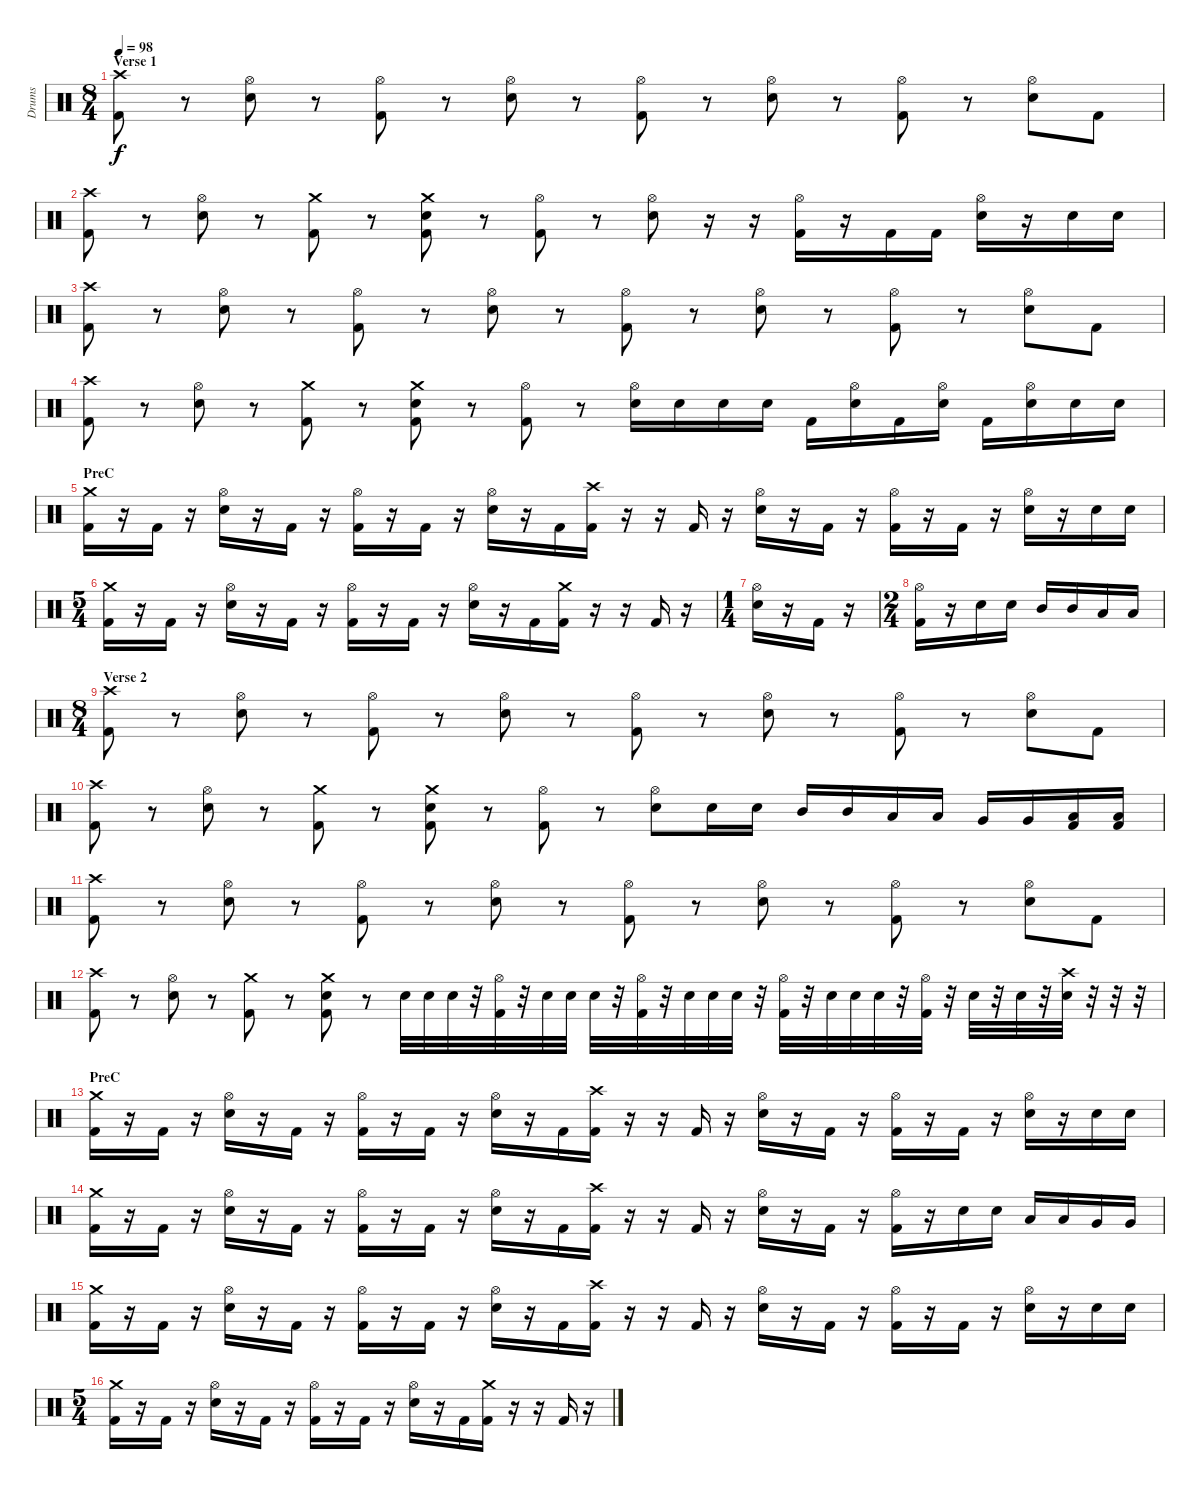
\track ("Drums" "Drums") {instrument percussion}
\staff {score}
\articulation defaults
\ts (8 4)
\section ("" "Verse 1")
\tempo 98
\clef neutral
\ks c
("Crash high (hit)" "Kick (hit) 2").8{dy f} r.8 ("Hi-Hat (open)" "Electric Snare (hit)").8 r.8 ("Hi-Hat (open)" "Kick (hit) 2").8 r.8 ("Hi-Hat (open)" "Electric Snare (hit)").8 r.8 ("Hi-Hat (open)" "Kick (hit) 2").8 r.8 ("Hi-Hat (open)" "Electric Snare (hit)").8 r.8 ("Hi-Hat (open)" "Kick (hit) 2").8 r.8 ("Hi-Hat (open)" "Electric Snare (hit)").8 "Kick (hit) 2".8 |
("Crash high (hit)" "Kick (hit) 2").8 r.8 ("Hi-Hat (open)" "Electric Snare (hit)").8 r.8 ("Crash medium (hit)" "Kick (hit) 2").8 r.8 ("Crash medium (hit)" "Electric Snare (hit)" "Kick (hit) 2").8 r.8 ("Hi-Hat (open)" "Kick (hit) 2").8 r.8 ("Hi-Hat (open)" "Electric Snare (hit)").8 r.16 r.16 ("Hi-Hat (open)" "Kick (hit) 2").16 r.16 "Kick (hit) 2".16 "Kick (hit) 2".16 ("Hi-Hat (open)" "Electric Snare (hit)").16 r.16 "Electric Snare (hit)".16 "Electric Snare (hit)".16 |
("Crash high (hit)" "Kick (hit) 2").8 r.8 ("Hi-Hat (open)" "Electric Snare (hit)").8 r.8 ("Hi-Hat (open)" "Kick (hit) 2").8 r.8 ("Hi-Hat (open)" "Electric Snare (hit)").8 r.8 ("Hi-Hat (open)" "Kick (hit) 2").8 r.8 ("Hi-Hat (open)" "Electric Snare (hit)").8 r.8 ("Hi-Hat (open)" "Kick (hit) 2").8 r.8 ("Hi-Hat (open)" "Electric Snare (hit)").8 "Kick (hit) 2".8 |
("Crash high (hit)" "Kick (hit) 2").8 r.8 ("Hi-Hat (open)" "Electric Snare (hit)").8 r.8 ("Crash medium (hit)" "Kick (hit) 2").8 r.8 ("Crash medium (hit)" "Electric Snare (hit)" "Kick (hit) 2").8 r.8 ("Hi-Hat (open)" "Kick (hit) 2").8 r.8 ("Hi-Hat (open)" "Electric Snare (hit)").16 "Electric Snare (hit)".16 "Electric Snare (hit)".16 "Electric Snare (hit)".16 "Kick (hit) 2".16 ("Hi-Hat (open)" "Electric Snare (hit)").16 "Kick (hit) 2".16 ("Hi-Hat (open)" "Electric Snare (hit)").16 "Kick (hit) 2".16 ("Hi-Hat (open)" "Electric Snare (hit)").16 "Electric Snare (hit)".16 "Electric Snare (hit)".16 |
\section ("" "PreC")
("Crash medium (hit)" "Kick (hit) 2").16 r.16 "Kick (hit) 2".16 r.16 ("Hi-Hat (open)" "Electric Snare (hit)").16 r.16 "Kick (hit) 2".16 r.16 ("Hi-Hat (open)" "Kick (hit) 2").16 r.16 "Kick (hit) 2".16 r.16 ("Hi-Hat (open)" "Electric Snare (hit)").16 r.16 "Kick (hit) 2".16 ("Crash high (hit)" "Kick (hit) 2").16 r.16 r.16 "Kick (hit) 2".16 r.16 ("Hi-Hat (open)" "Electric Snare (hit)").16 r.16 "Kick (hit) 2".16 r.16 ("Hi-Hat (open)" "Kick (hit) 2").16 r.16 "Kick (hit) 2".16 r.16 ("Hi-Hat (open)" "Electric Snare (hit)").16 r.16 "Electric Snare (hit)".16 "Electric Snare (hit)".16 |
\ts (5 4)
("Crash medium (hit)" "Kick (hit) 2").16 r.16 "Kick (hit) 2".16 r.16 ("Hi-Hat (open)" "Electric Snare (hit)").16 r.16 "Kick (hit) 2".16 r.16 ("Hi-Hat (open)" "Kick (hit) 2").16 r.16 "Kick (hit) 2".16 r.16 ("Hi-Hat (open)" "Electric Snare (hit)").16 r.16 "Kick (hit) 2".16 ("Crash medium (hit)" "Kick (hit) 2").16 r.16 r.16 "Kick (hit) 2".16 r.16 |
\ts (1 4)
("Hi-Hat (open)" "Electric Snare (hit)").16 r.16 "Kick (hit) 2".16 r.16 |
\ts (2 4)
("Hi-Hat (open)" "Kick (hit) 2").16 r.16 "Electric Snare (hit)".16 "Electric Snare (hit)".16 "Mid Tom (hit)".16 "Mid Tom (hit)".16 "Low Tom (hit)".16 "Low Tom (hit)".16 |
\ts (8 4)
\section ("" "Verse 2")
("Crash high (hit)" "Kick (hit) 2").8 r.8 ("Hi-Hat (open)" "Electric Snare (hit)").8 r.8 ("Hi-Hat (open)" "Kick (hit) 2").8 r.8 ("Hi-Hat (open)" "Electric Snare (hit)").8 r.8 ("Hi-Hat (open)" "Kick (hit) 2").8 r.8 ("Hi-Hat (open)" "Electric Snare (hit)").8 r.8 ("Hi-Hat (open)" "Kick (hit) 2").8 r.8 ("Hi-Hat (open)" "Electric Snare (hit)").8 "Kick (hit) 2".8 |
("Crash high (hit)" "Kick (hit) 2").8 r.8 ("Hi-Hat (open)" "Electric Snare (hit)").8 r.8 ("Crash medium (hit)" "Kick (hit) 2").8 r.8 ("Crash medium (hit)" "Electric Snare (hit)" "Kick (hit) 2").8 r.8 ("Hi-Hat (open)" "Kick (hit) 2").8 r.8 ("Hi-Hat (open)" "Electric Snare (hit)").8 "Electric Snare (hit)".16 "Electric Snare (hit)".16 "Mid Tom (hit)".16 "Mid Tom (hit)".16 "Low Tom (hit)".16 "Low Tom (hit)".16 "Very Low Tom (hit)".16 "Very Low Tom (hit)".16 ("Low Floor Tom (hit)" "Kick (hit) 2").16 ("Low Floor Tom (hit)" "Kick (hit) 2").16 |
("Crash high (hit)" "Kick (hit) 2").8 r.8 ("Hi-Hat (open)" "Electric Snare (hit)").8 r.8 ("Hi-Hat (open)" "Kick (hit) 2").8 r.8 ("Hi-Hat (open)" "Electric Snare (hit)").8 r.8 ("Hi-Hat (open)" "Kick (hit) 2").8 r.8 ("Hi-Hat (open)" "Electric Snare (hit)").8 r.8 ("Hi-Hat (open)" "Kick (hit) 2").8 r.8 ("Hi-Hat (open)" "Electric Snare (hit)").8 "Kick (hit) 2".8 |
("Crash high (hit)" "Kick (hit) 2").8 r.8 ("Hi-Hat (open)" "Electric Snare (hit)").8 r.8 ("Crash medium (hit)" "Kick (hit) 2").8 r.8 ("Crash medium (hit)" "Electric Snare (hit)" "Kick (hit) 2").8 r.8 "Electric Snare (hit)".32 "Electric Snare (hit)".32 "Electric Snare (hit)".32 r.32 ("Hi-Hat (open)" "Kick (hit) 2").32 r.32 "Electric Snare (hit)".32 "Electric Snare (hit)".32 "Electric Snare (hit)".32 r.32 ("Hi-Hat (open)" "Kick (hit) 2").32 r.32 "Electric Snare (hit)".32 "Electric Snare (hit)".32 "Electric Snare (hit)".32 r.32 ("Hi-Hat (open)" "Kick (hit) 2").32 r.32 "Electric Snare (hit)".32 "Electric Snare (hit)".32 "Electric Snare (hit)".32 r.32 ("Hi-Hat (open)" "Kick (hit) 2").32 r.32 "Electric Snare (hit)".32 r.32 "Electric Snare (hit)".32 r.32 ("Crash high (hit)" "Electric Snare (hit)").32 r.32 r.32 r.32 |
\section ("" "PreC")
("Crash medium (hit)" "Kick (hit) 2").16 r.16 "Kick (hit) 2".16 r.16 ("Hi-Hat (open)" "Electric Snare (hit)").16 r.16 "Kick (hit) 2".16 r.16 ("Hi-Hat (open)" "Kick (hit) 2").16 r.16 "Kick (hit) 2".16 r.16 ("Hi-Hat (open)" "Electric Snare (hit)").16 r.16 "Kick (hit) 2".16 ("Crash high (hit)" "Kick (hit) 2").16 r.16 r.16 "Kick (hit) 2".16 r.16 ("Hi-Hat (open)" "Electric Snare (hit)").16 r.16 "Kick (hit) 2".16 r.16 ("Hi-Hat (open)" "Kick (hit) 2").16 r.16 "Kick (hit) 2".16 r.16 ("Hi-Hat (open)" "Electric Snare (hit)").16 r.16 "Electric Snare (hit)".16 "Electric Snare (hit)".16 |
("Crash medium (hit)" "Kick (hit) 2").16 r.16 "Kick (hit) 2".16 r.16 ("Hi-Hat (open)" "Electric Snare (hit)").16 r.16 "Kick (hit) 2".16 r.16 ("Hi-Hat (open)" "Kick (hit) 2").16 r.16 "Kick (hit) 2".16 r.16 ("Hi-Hat (open)" "Electric Snare (hit)").16 r.16 "Kick (hit) 2".16 ("Crash high (hit)" "Kick (hit) 2").16 r.16 r.16 "Kick (hit) 2".16 r.16 ("Hi-Hat (open)" "Electric Snare (hit)").16 r.16 "Kick (hit) 2".16 r.16 ("Hi-Hat (open)" "Kick (hit) 2").16 r.16 "Electric Snare (hit)".16 "Electric Snare (hit)".16 "Low Tom (hit)".16 "Low Tom (hit)".16 "Very Low Tom (hit)".16 "Very Low Tom (hit)".16 |
("Crash medium (hit)" "Kick (hit) 2").16 r.16 "Kick (hit) 2".16 r.16 ("Hi-Hat (open)" "Electric Snare (hit)").16 r.16 "Kick (hit) 2".16 r.16 ("Hi-Hat (open)" "Kick (hit) 2").16 r.16 "Kick (hit) 2".16 r.16 ("Hi-Hat (open)" "Electric Snare (hit)").16 r.16 "Kick (hit) 2".16 ("Crash high (hit)" "Kick (hit) 2").16 r.16 r.16 "Kick (hit) 2".16 r.16 ("Hi-Hat (open)" "Electric Snare (hit)").16 r.16 "Kick (hit) 2".16 r.16 ("Hi-Hat (open)" "Kick (hit) 2").16 r.16 "Kick (hit) 2".16 r.16 ("Hi-Hat (open)" "Electric Snare (hit)").16 r.16 "Electric Snare (hit)".16 "Electric Snare (hit)".16 |
\ts (5 4)
("Crash medium (hit)" "Kick (hit) 2").16 r.16 "Kick (hit) 2".16 r.16 ("Hi-Hat (open)" "Electric Snare (hit)").16 r.16 "Kick (hit) 2".16 r.16 ("Hi-Hat (open)" "Kick (hit) 2").16 r.16 "Kick (hit) 2".16 r.16 ("Hi-Hat (open)" "Electric Snare (hit)").16 r.16 "Kick (hit) 2".16 ("Crash medium (hit)" "Kick (hit) 2").16 r.16 r.16 "Kick (hit) 2".16 r.16
